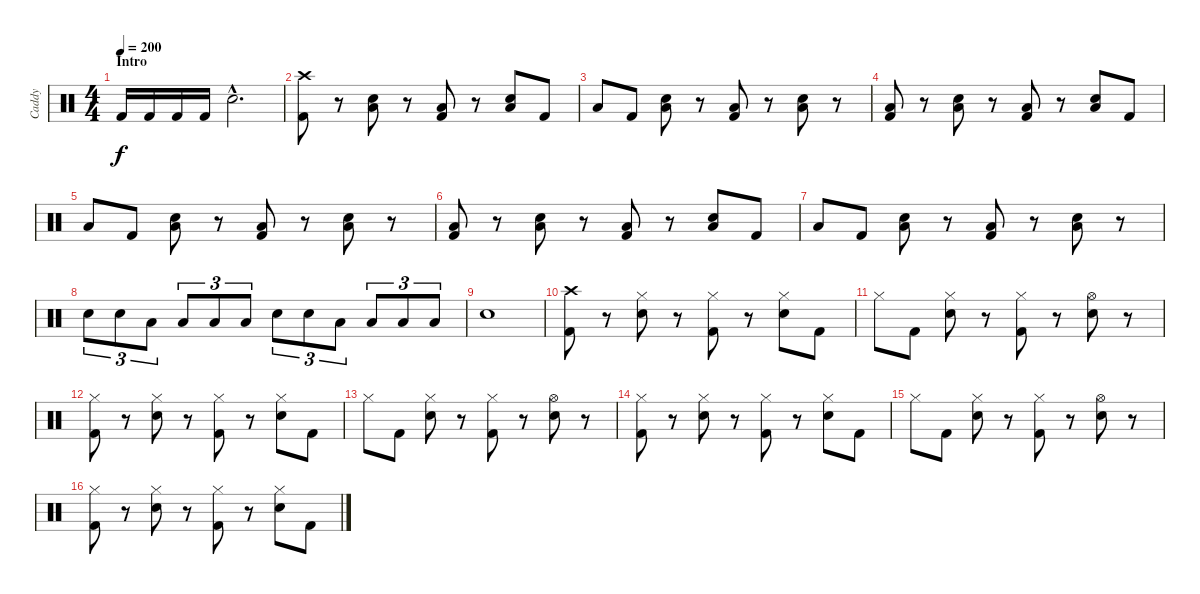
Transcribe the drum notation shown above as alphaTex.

\track ("Caddy" "Caddy") {instrument percussion}
\staff {score}
\articulation defaults
\ts (4 4)
\section ("" "Intro")
\tempo 200
\clef neutral
\ks c "Kick (hit) 2".16{dy f} "Kick (hit) 2".16 "Kick (hit) 2".16 "Kick (hit) 2".16 "Electric Snare (hit)"{hac}.2{d}
|
("Crash high (hit)" "Kick (hit) 2").8 r.8 ("Electric Snare (hit)" "Low Floor Tom (hit)").8 r.8 ("Low Floor Tom (hit)" "Kick (hit) 2").8 r.8 ("Electric Snare (hit)" "Low Floor Tom (hit)").8 "Kick (hit) 2".8 |
"Low Floor Tom (hit)".8 "Kick (hit) 2".8 ("Electric Snare (hit)" "Low Floor Tom (hit)").8 r.8 ("Low Floor Tom (hit)" "Kick (hit) 2").8 r.8 ("Electric Snare (hit)" "Low Floor Tom (hit)").8 r.8 |
("Low Floor Tom (hit)" "Kick (hit) 2").8 r.8 ("Electric Snare (hit)" "Low Floor Tom (hit)").8 r.8 ("Low Floor Tom (hit)" "Kick (hit) 2").8 r.8 ("Electric Snare (hit)" "Low Floor Tom (hit)").8 "Kick (hit) 2".8 |
"Low Floor Tom (hit)".8 "Kick (hit) 2".8 ("Electric Snare (hit)" "Low Floor Tom (hit)").8 r.8 ("Low Floor Tom (hit)" "Kick (hit) 2").8 r.8 ("Electric Snare (hit)" "Low Floor Tom (hit)").8 r.8 |
("Low Floor Tom (hit)" "Kick (hit) 2").8 r.8 ("Electric Snare (hit)" "Low Floor Tom (hit)").8 r.8 ("Low Floor Tom (hit)" "Kick (hit) 2").8 r.8 ("Electric Snare (hit)" "Low Floor Tom (hit)").8 "Kick (hit) 2".8 |
"Low Floor Tom (hit)".8 "Kick (hit) 2".8 ("Electric Snare (hit)" "Low Floor Tom (hit)").8 r.8 ("Low Floor Tom (hit)" "Kick (hit) 2").8 r.8 ("Electric Snare (hit)" "Low Floor Tom (hit)").8 r.8 |
"Electric Snare (hit)".8{tu (3 2)} "Electric Snare (hit)".8{tu (3 2)} "Low Tom (hit)".8{tu (3 2)} "Low Tom (hit)".8{tu (3 2)} "Low Tom (hit)".8{tu (3 2)} "Low Tom (hit)".8{tu (3 2)} "Electric Snare (hit)".8{tu (3 2)} "Electric Snare (hit)".8{tu (3 2)} "Low Floor Tom (hit)".8{tu (3 2)} "Low Floor Tom (hit)".8{tu (3 2)} "Low Floor Tom (hit)".8{tu (3 2)} "Low Floor Tom (hit)".8{tu (3 2)} |
"Electric Snare (hit)".1 |
("Crash high (hit)" "Kick (hit) 2").8 r.8 ("Hi-Hat (closed)" "Electric Snare (hit)").8 r.8 ("Hi-Hat (closed)" "Kick (hit) 2").8 r.8 ("Hi-Hat (closed)" "Electric Snare (hit)").8 "Kick (hit) 2".8 |
"Hi-Hat (closed)".8 "Kick (hit) 2".8 ("Hi-Hat (closed)" "Electric Snare (hit)").8 r.8 ("Hi-Hat (closed)" "Kick (hit) 2").8 r.8 ("Hi-Hat (open)" "Electric Snare (hit)").8 r.8 |
("Hi-Hat (closed)" "Kick (hit) 2").8 r.8 ("Hi-Hat (closed)" "Electric Snare (hit)").8 r.8 ("Hi-Hat (closed)" "Kick (hit) 2").8 r.8 ("Hi-Hat (closed)" "Electric Snare (hit)").8 "Kick (hit) 2".8 |
"Hi-Hat (closed)".8 "Kick (hit) 2".8 ("Hi-Hat (closed)" "Electric Snare (hit)").8 r.8 ("Hi-Hat (closed)" "Kick (hit) 2").8 r.8 ("Hi-Hat (open)" "Electric Snare (hit)").8 r.8 |
("Hi-Hat (closed)" "Kick (hit) 2").8 r.8 ("Hi-Hat (closed)" "Electric Snare (hit)").8 r.8 ("Hi-Hat (closed)" "Kick (hit) 2").8 r.8 ("Hi-Hat (closed)" "Electric Snare (hit)").8 "Kick (hit) 2".8 |
"Hi-Hat (closed)".8 "Kick (hit) 2".8 ("Hi-Hat (closed)" "Electric Snare (hit)").8 r.8 ("Hi-Hat (closed)" "Kick (hit) 2").8 r.8 ("Hi-Hat (open)" "Electric Snare (hit)").8 r.8 |
("Hi-Hat (closed)" "Kick (hit) 2").8 r.8 ("Hi-Hat (closed)" "Electric Snare (hit)").8 r.8 ("Hi-Hat (closed)" "Kick (hit) 2").8 r.8 ("Hi-Hat (closed)" "Electric Snare (hit)").8 "Kick (hit) 2".8
